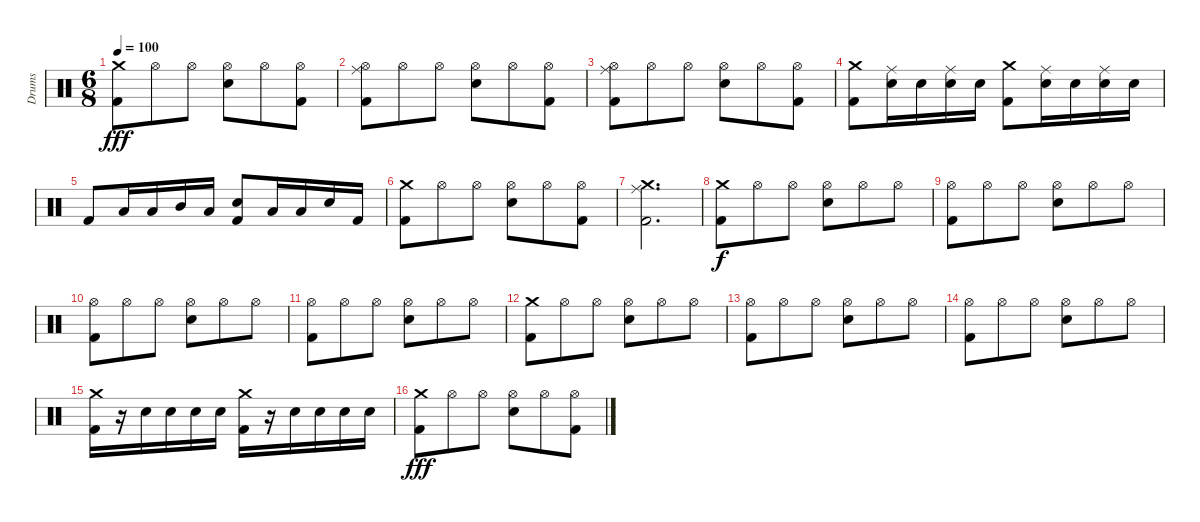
\track ("Drums" "Drums") {instrument percussion}
\staff {score}
\articulation defaults
\ts (6 8)
\tempo 100
\clef neutral
\ks c
("Crash medium (hit)" "Kick (hit) 2").8{dy fff} "Hi-Hat (open)".8 "Hi-Hat (open)".8 ("Hi-Hat (open)" "Electric Snare (hit)").8 "Hi-Hat (open)".8 ("Hi-Hat (open)" "Kick (hit) 2").8 |
("Ride (middle)" "Hi-Hat (open)" "Kick (hit) 2").8 "Hi-Hat (open)".8 "Hi-Hat (open)".8 ("Hi-Hat (open)" "Electric Snare (hit)").8 "Hi-Hat (open)".8 ("Hi-Hat (open)" "Kick (hit) 2").8 |
("Ride (middle)" "Hi-Hat (open)" "Kick (hit) 2").8 "Hi-Hat (open)".8 "Hi-Hat (open)".8 ("Hi-Hat (open)" "Electric Snare (hit)").8 "Hi-Hat (open)".8 ("Hi-Hat (open)" "Kick (hit) 2").8 |
("Crash medium (hit)" "Kick (hit) 2").8 ("Ride (middle)" "Electric Snare (hit)").16 "Electric Snare (hit)".16 ("Ride (middle)" "Electric Snare (hit)").16 "Electric Snare (hit)".16 ("Crash medium (hit)" "Kick (hit) 2").8 ("Ride (middle)" "Electric Snare (hit)").16 "Electric Snare (hit)".16 ("Ride (middle)" "Electric Snare (hit)").16 "Electric Snare (hit)".16 |
"Kick (hit) 2".8 "Low Floor Tom (hit)".16 "Low Tom (hit)".16 "Mid Tom (hit)".16 "Low Tom (hit)".16 ("Electric Snare (hit)" "Kick (hit) 2").8 "Low Floor Tom (hit)".16 "Low Tom (hit)".16 "Electric Snare (hit)".16 "Kick (hit) 2".16 |
("Crash medium (hit)" "Kick (hit) 2").8 "Hi-Hat (open)".8 "Hi-Hat (open)".8 ("Hi-Hat (open)" "Electric Snare (hit)").8 "Hi-Hat (open)".8 ("Hi-Hat (open)" "Kick (hit) 2").8 |
("Crash medium (hit)" "Ride (middle)" "Kick (hit) 2").2{d} |
("Crash medium (hit)" "Kick (hit) 2").8{dy f} "Hi-Hat (open)".8 "Hi-Hat (open)".8 ("Hi-Hat (open)" "Electric Snare (hit)").8 "Hi-Hat (open)".8 "Hi-Hat (open)".8 |
("Hi-Hat (open)" "Kick (hit) 2").8 "Hi-Hat (open)".8 "Hi-Hat (open)".8 ("Hi-Hat (open)" "Electric Snare (hit)").8 "Hi-Hat (open)".8 "Hi-Hat (open)".8 |
("Hi-Hat (open)" "Kick (hit) 2").8 "Hi-Hat (open)".8 "Hi-Hat (open)".8 ("Hi-Hat (open)" "Electric Snare (hit)").8 "Hi-Hat (open)".8 "Hi-Hat (open)".8 |
("Hi-Hat (open)" "Kick (hit) 2").8 "Hi-Hat (open)".8 "Hi-Hat (open)".8 ("Hi-Hat (open)" "Electric Snare (hit)").8 "Hi-Hat (open)".8 "Hi-Hat (open)".8 |
("Crash medium (hit)" "Kick (hit) 2").8 "Hi-Hat (open)".8 "Hi-Hat (open)".8 ("Hi-Hat (open)" "Electric Snare (hit)").8 "Hi-Hat (open)".8 "Hi-Hat (open)".8 |
("Hi-Hat (open)" "Kick (hit) 2").8 "Hi-Hat (open)".8 "Hi-Hat (open)".8 ("Hi-Hat (open)" "Electric Snare (hit)").8 "Hi-Hat (open)".8 "Hi-Hat (open)".8 |
("Hi-Hat (open)" "Kick (hit) 2").8 "Hi-Hat (open)".8 "Hi-Hat (open)".8 ("Hi-Hat (open)" "Electric Snare (hit)").8 "Hi-Hat (open)".8 "Hi-Hat (open)".8 |
("Crash medium (hit)" "Kick (hit) 2").16 r.16 "Electric Snare (hit)".16 "Electric Snare (hit)".16 "Electric Snare (hit)".16 "Electric Snare (hit)".16 ("Crash medium (hit)" "Kick (hit) 2").16 r.16 "Electric Snare (hit)".16 "Electric Snare (hit)".16 "Electric Snare (hit)".16 "Electric Snare (hit)".16 |
("Crash medium (hit)" "Kick (hit) 2").8{dy fff} "Hi-Hat (open)".8 "Hi-Hat (open)".8 ("Hi-Hat (open)" "Electric Snare (hit)").8 "Hi-Hat (open)".8 ("Hi-Hat (open)" "Kick (hit) 2").8
